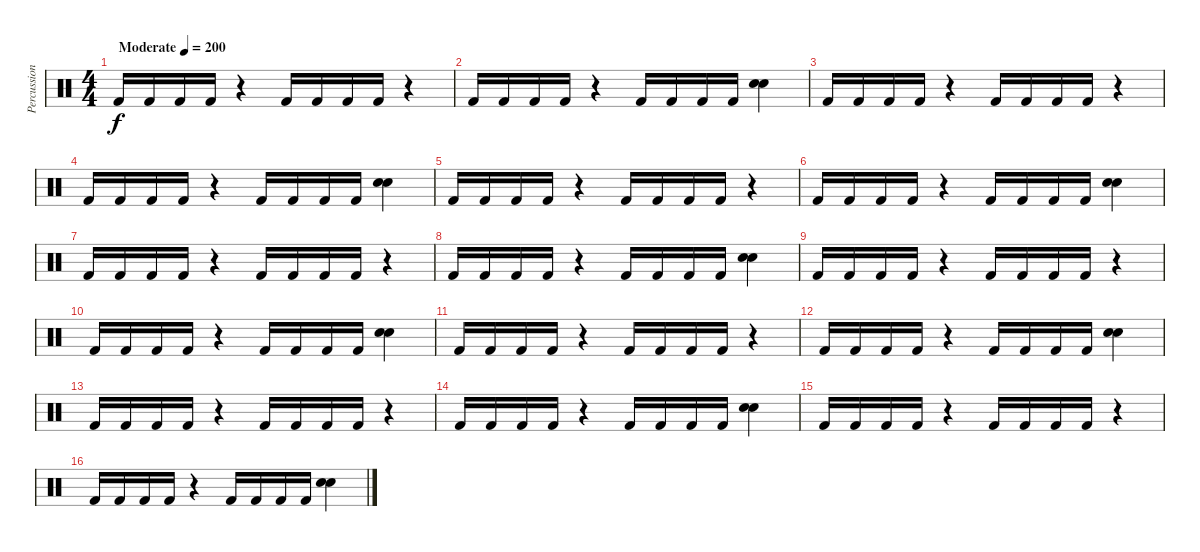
\track ("Percussion" "Percussion") {instrument percussion}
\staff {score}
\articulation defaults
\ts (4 4)
\tempo (200 "Moderate")
\clef neutral
\ks c "Kick (hit) 2".16{dy f} "Kick (hit) 2".16 "Kick (hit) 2".16 "Kick (hit) 2".16
r.4 "Kick (hit) 2".16 "Kick (hit) 2".16 "Kick (hit) 2".16 "Kick (hit) 2".16 r.4 |
"Kick (hit) 2".16 "Kick (hit) 2".16 "Kick (hit) 2".16 "Kick (hit) 2".16 r.4 "Kick (hit) 2".16 "Kick (hit) 2".16 "Kick (hit) 2".16 "Kick (hit) 2".16 ("Snare (hit) 2" "Snare (hit) 2").4 |
"Kick (hit) 2".16 "Kick (hit) 2".16 "Kick (hit) 2".16 "Kick (hit) 2".16 r.4 "Kick (hit) 2".16 "Kick (hit) 2".16 "Kick (hit) 2".16 "Kick (hit) 2".16 r.4 |
"Kick (hit) 2".16 "Kick (hit) 2".16 "Kick (hit) 2".16 "Kick (hit) 2".16 r.4 "Kick (hit) 2".16 "Kick (hit) 2".16 "Kick (hit) 2".16 "Kick (hit) 2".16 ("Snare (hit) 2" "Snare (hit) 2").4 |
"Kick (hit) 2".16 "Kick (hit) 2".16 "Kick (hit) 2".16 "Kick (hit) 2".16 r.4 "Kick (hit) 2".16 "Kick (hit) 2".16 "Kick (hit) 2".16 "Kick (hit) 2".16 r.4 |
"Kick (hit) 2".16 "Kick (hit) 2".16 "Kick (hit) 2".16 "Kick (hit) 2".16 r.4 "Kick (hit) 2".16 "Kick (hit) 2".16 "Kick (hit) 2".16 "Kick (hit) 2".16 ("Snare (hit) 2" "Snare (hit) 2").4 |
"Kick (hit) 2".16 "Kick (hit) 2".16 "Kick (hit) 2".16 "Kick (hit) 2".16 r.4 "Kick (hit) 2".16 "Kick (hit) 2".16 "Kick (hit) 2".16 "Kick (hit) 2".16 r.4 |
"Kick (hit) 2".16 "Kick (hit) 2".16 "Kick (hit) 2".16 "Kick (hit) 2".16 r.4 "Kick (hit) 2".16 "Kick (hit) 2".16 "Kick (hit) 2".16 "Kick (hit) 2".16 ("Snare (hit) 2" "Snare (hit) 2").4 |
"Kick (hit) 2".16 "Kick (hit) 2".16 "Kick (hit) 2".16 "Kick (hit) 2".16 r.4 "Kick (hit) 2".16 "Kick (hit) 2".16 "Kick (hit) 2".16 "Kick (hit) 2".16 r.4 |
"Kick (hit) 2".16 "Kick (hit) 2".16 "Kick (hit) 2".16 "Kick (hit) 2".16 r.4 "Kick (hit) 2".16 "Kick (hit) 2".16 "Kick (hit) 2".16 "Kick (hit) 2".16 ("Snare (hit) 2" "Snare (hit) 2").4 |
"Kick (hit) 2".16 "Kick (hit) 2".16 "Kick (hit) 2".16 "Kick (hit) 2".16 r.4 "Kick (hit) 2".16 "Kick (hit) 2".16 "Kick (hit) 2".16 "Kick (hit) 2".16 r.4 |
"Kick (hit) 2".16 "Kick (hit) 2".16 "Kick (hit) 2".16 "Kick (hit) 2".16 r.4 "Kick (hit) 2".16 "Kick (hit) 2".16 "Kick (hit) 2".16 "Kick (hit) 2".16 ("Snare (hit) 2" "Snare (hit) 2").4 |
"Kick (hit) 2".16 "Kick (hit) 2".16 "Kick (hit) 2".16 "Kick (hit) 2".16 r.4 "Kick (hit) 2".16 "Kick (hit) 2".16 "Kick (hit) 2".16 "Kick (hit) 2".16 r.4 |
"Kick (hit) 2".16 "Kick (hit) 2".16 "Kick (hit) 2".16 "Kick (hit) 2".16 r.4 "Kick (hit) 2".16 "Kick (hit) 2".16 "Kick (hit) 2".16 "Kick (hit) 2".16 ("Snare (hit) 2" "Snare (hit) 2").4 |
"Kick (hit) 2".16 "Kick (hit) 2".16 "Kick (hit) 2".16 "Kick (hit) 2".16 r.4 "Kick (hit) 2".16 "Kick (hit) 2".16 "Kick (hit) 2".16 "Kick (hit) 2".16 r.4 |
"Kick (hit) 2".16 "Kick (hit) 2".16 "Kick (hit) 2".16 "Kick (hit) 2".16 r.4 "Kick (hit) 2".16 "Kick (hit) 2".16 "Kick (hit) 2".16 "Kick (hit) 2".16 ("Snare (hit) 2" "Snare (hit) 2").4
